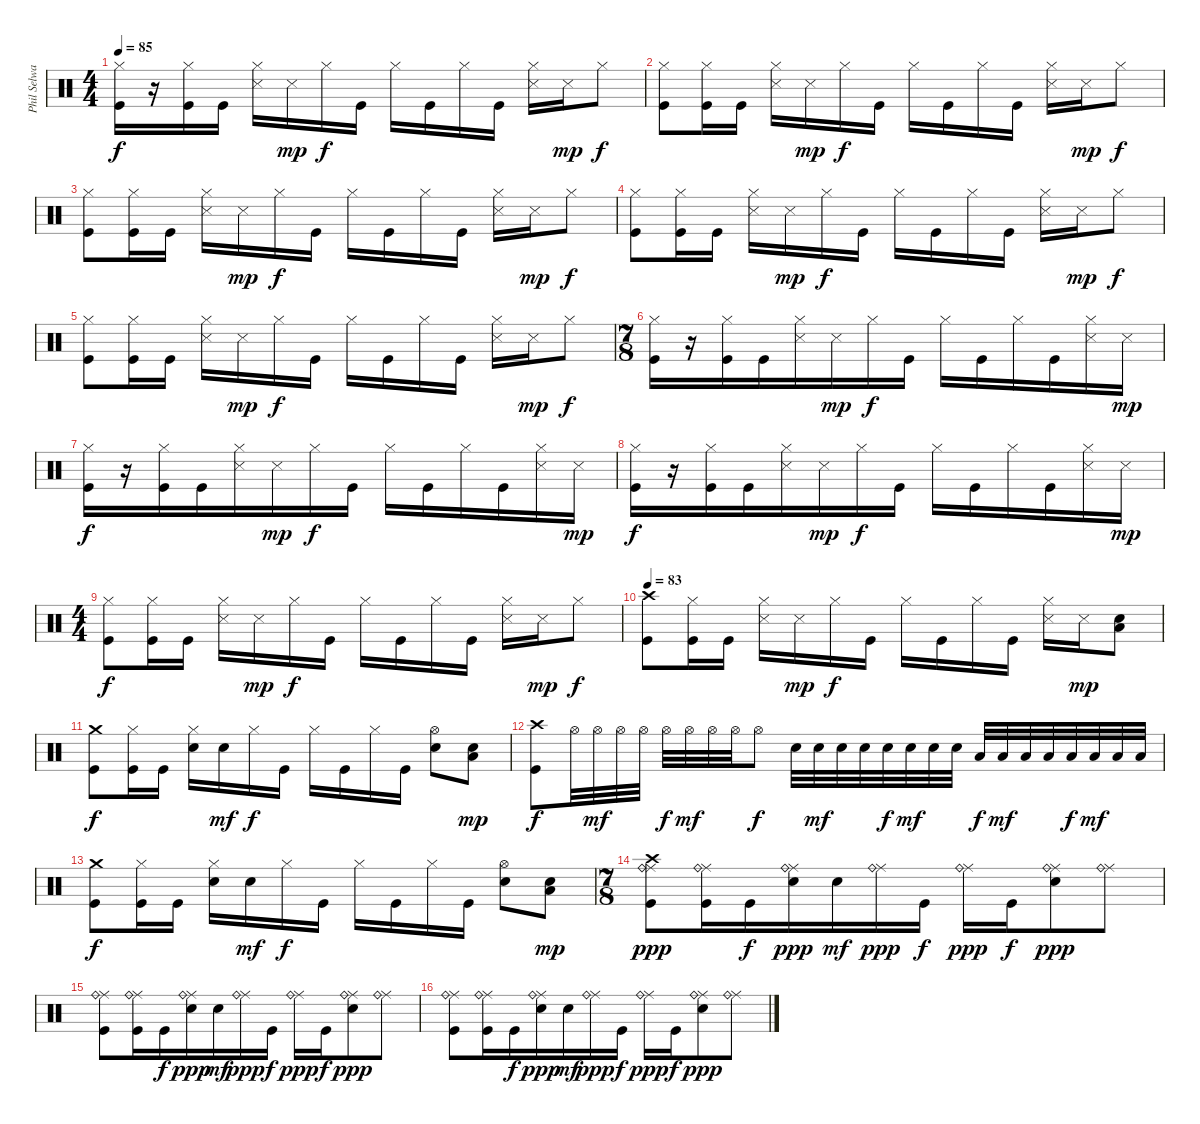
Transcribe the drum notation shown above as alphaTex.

\track ("Phil Selway" "Phil Selwa") {instrument percussion}
\staff {score}
\articulation defaults
\ts (4 4)
\tempo 85
\clef neutral
\ks c
("Hi-Hat (closed)" "Kick (hit)").16{dy f} r.16 ("Hi-Hat (closed)" "Kick (hit)").16 "Kick (hit)".16 ("Hi-Hat (closed)" "Snare (side stick) 3").16 "Snare (side stick) 3".16{dy mp} "Hi-Hat (closed)".16{dy f} "Kick (hit)".16 "Hi-Hat (closed)".16 "Kick (hit)".16 "Hi-Hat (closed)".16 "Kick (hit)".16 ("Hi-Hat (closed)" "Snare (side stick) 3").16 "Snare (side stick) 3".16{dy mp} "Hi-Hat (closed)".8{dy f} |
("Hi-Hat (closed)" "Kick (hit)").8 ("Hi-Hat (closed)" "Kick (hit)").16 "Kick (hit)".16 ("Hi-Hat (closed)" "Snare (side stick) 3").16 "Snare (side stick) 3".16{dy mp} "Hi-Hat (closed)".16{dy f} "Kick (hit)".16 "Hi-Hat (closed)".16 "Kick (hit)".16 "Hi-Hat (closed)".16 "Kick (hit)".16 ("Hi-Hat (closed)" "Snare (side stick) 3").16 "Snare (side stick) 3".16{dy mp} "Hi-Hat (closed)".8{dy f} |
("Hi-Hat (closed)" "Kick (hit)").8 ("Hi-Hat (closed)" "Kick (hit)").16 "Kick (hit)".16 ("Hi-Hat (closed)" "Snare (side stick) 3").16 "Snare (side stick) 3".16{dy mp} "Hi-Hat (closed)".16{dy f} "Kick (hit)".16 "Hi-Hat (closed)".16 "Kick (hit)".16 "Hi-Hat (closed)".16 "Kick (hit)".16 ("Hi-Hat (closed)" "Snare (side stick) 3").16 "Snare (side stick) 3".16{dy mp} "Hi-Hat (closed)".8{dy f} |
("Hi-Hat (closed)" "Kick (hit)").8 ("Hi-Hat (closed)" "Kick (hit)").16 "Kick (hit)".16 ("Hi-Hat (closed)" "Snare (side stick) 3").16 "Snare (side stick) 3".16{dy mp} "Hi-Hat (closed)".16{dy f} "Kick (hit)".16 "Hi-Hat (closed)".16 "Kick (hit)".16 "Hi-Hat (closed)".16 "Kick (hit)".16 ("Hi-Hat (closed)" "Snare (side stick) 3").16 "Snare (side stick) 3".16{dy mp} "Hi-Hat (closed)".8{dy f} |
("Hi-Hat (closed)" "Kick (hit)").8 ("Hi-Hat (closed)" "Kick (hit)").16 "Kick (hit)".16 ("Hi-Hat (closed)" "Snare (side stick) 3").16 "Snare (side stick) 3".16{dy mp} "Hi-Hat (closed)".16{dy f} "Kick (hit)".16 "Hi-Hat (closed)".16 "Kick (hit)".16 "Hi-Hat (closed)".16 "Kick (hit)".16 ("Hi-Hat (closed)" "Snare (side stick) 3").16 "Snare (side stick) 3".16{dy mp} "Hi-Hat (closed)".8{dy f} |
\ts (7 8)
("Hi-Hat (closed)" "Kick (hit)").16 r.16 ("Hi-Hat (closed)" "Kick (hit)").16 "Kick (hit)".16 ("Hi-Hat (closed)" "Snare (side stick) 3").16 "Snare (side stick) 3".16{dy mp} "Hi-Hat (closed)".16{dy f} "Kick (hit)".16 "Hi-Hat (closed)".16 "Kick (hit)".16 "Hi-Hat (closed)".16 "Kick (hit)".16 ("Hi-Hat (closed)" "Snare (side stick) 3").16 "Snare (side stick) 3".16{dy mp} |
("Hi-Hat (closed)" "Kick (hit)").16{dy f} r.16 ("Hi-Hat (closed)" "Kick (hit)").16 "Kick (hit)".16 ("Hi-Hat (closed)" "Snare (side stick) 3").16 "Snare (side stick) 3".16{dy mp} "Hi-Hat (closed)".16{dy f} "Kick (hit)".16 "Hi-Hat (closed)".16 "Kick (hit)".16 "Hi-Hat (closed)".16 "Kick (hit)".16 ("Hi-Hat (closed)" "Snare (side stick) 3").16 "Snare (side stick) 3".16{dy mp} |
("Hi-Hat (closed)" "Kick (hit)").16{dy f} r.16 ("Hi-Hat (closed)" "Kick (hit)").16 "Kick (hit)".16 ("Hi-Hat (closed)" "Snare (side stick) 3").16 "Snare (side stick) 3".16{dy mp} "Hi-Hat (closed)".16{dy f} "Kick (hit)".16 "Hi-Hat (closed)".16 "Kick (hit)".16 "Hi-Hat (closed)".16 "Kick (hit)".16 ("Hi-Hat (closed)" "Snare (side stick) 3").16 "Snare (side stick) 3".16{dy mp} |
\ts (4 4)
("Hi-Hat (closed)" "Kick (hit)").8{dy f} ("Hi-Hat (closed)" "Kick (hit)").16 "Kick (hit)".16 ("Hi-Hat (closed)" "Snare (side stick) 3").16 "Snare (side stick) 3".16{dy mp} "Hi-Hat (closed)".16{dy f} "Kick (hit)".16 "Hi-Hat (closed)".16 "Kick (hit)".16 "Hi-Hat (closed)".16 "Kick (hit)".16 ("Hi-Hat (closed)" "Snare (side stick) 3").16 "Snare (side stick) 3".16{dy mp} "Hi-Hat (closed)".8{dy f} |
\tempo 83
("Crash high (hit)" "Kick (hit)").8 ("Hi-Hat (closed)" "Kick (hit)").16 "Kick (hit)".16 ("Hi-Hat (closed)" "Snare (side stick) 3").16 "Snare (side stick) 3".16{dy mp} "Hi-Hat (closed)".16{dy f} "Kick (hit)".16 "Hi-Hat (closed)".16 "Kick (hit)".16 "Hi-Hat (closed)".16 "Kick (hit)".16 ("Hi-Hat (closed)" "Snare (side stick) 3").16 "Snare (side stick) 3".16{dy mp} ("Snare (hit) 2" "Low Floor Tom (hit)").8{volume 16} |
("Crash medium (hit)" "Kick (hit)").8{dy f} ("Hi-Hat (closed)" "Kick (hit)").16 "Kick (hit)".16 ("Hi-Hat (closed)" "Snare (hit) 2").16 "Snare (hit) 2".16{dy mf} "Hi-Hat (closed)".16{dy f} "Kick (hit)".16 "Hi-Hat (closed)".16 "Kick (hit)".16 "Hi-Hat (closed)".16 "Kick (hit)".16 ("Hi-Hat (open)" "Snare (hit) 2").8 ("Snare (hit) 2" "Low Floor Tom (hit)").8{dy mp} |
("Crash high (hit)" "Kick (hit)").8{dy f} "Hi-Hat (open)".32 "Hi-Hat (open)".32{dy mf} "Hi-Hat (open)".32 "Hi-Hat (open)".32 "Hi-Hat (open)".32{dy f} "Hi-Hat (open)".32{dy mf} "Hi-Hat (open)".32 "Hi-Hat (open)".32 "Hi-Hat (open)".8{dy f} "Snare (hit) 2".32 "Snare (hit) 2".32{dy mf} "Snare (hit) 2".32 "Snare (hit) 2".32 "Snare (hit) 2".32{dy f} "Snare (hit) 2".32{dy mf} "Snare (hit) 2".32 "Snare (hit) 2".32 "Low Tom (hit)".32{dy f} "Low Tom (hit)".32{dy mf} "Low Tom (hit)".32 "Low Tom (hit)".32 "Low Tom (hit)".32{dy f} "Low Tom (hit)".32{dy mf} "Low Tom (hit)".32 "Low Tom (hit)".32 |
("Crash medium (hit)" "Kick (hit)").8{dy f} ("Hi-Hat (closed)" "Kick (hit)").16 "Kick (hit)".16 ("Hi-Hat (closed)" "Snare (hit) 2").16 "Snare (hit) 2".16{dy mf} "Hi-Hat (closed)".16{dy f} "Kick (hit)".16 "Hi-Hat (closed)".16 "Kick (hit)".16 "Hi-Hat (closed)".16 "Kick (hit)".16 ("Hi-Hat (open)" "Snare (hit) 2").8 ("Snare (hit) 2" "Low Floor Tom (hit)").8{dy mp} |
\ts (7 8)
("Ride (middle)" "Ride (bell)" "Crash high (hit)" "Kick (hit)").8{dy ppp} ("Ride (middle)" "Ride (bell)" "Kick (hit)").16 "Kick (hit)".16{dy f} ("Ride (middle)" "Ride (bell)" "Snare (hit) 2").16{dy ppp} "Snare (hit) 2".16{dy mf} ("Ride (middle)" "Ride (bell)").16{dy ppp} "Kick (hit)".16{dy f} ("Ride (middle)" "Ride (bell)").16{dy ppp} "Kick (hit)".16{dy f} ("Ride (middle)" "Ride (bell)" "Snare (hit) 2").8{dy ppp} ("Ride (middle)" "Ride (bell)").8 |
("Ride (middle)" "Ride (bell)" "Kick (hit)").8 ("Ride (middle)" "Ride (bell)" "Kick (hit)").16 "Kick (hit)".16{dy f} ("Ride (middle)" "Ride (bell)" "Snare (hit) 2").16{dy ppp} "Snare (hit) 2".16{dy mf} ("Ride (middle)" "Ride (bell)").16{dy ppp} "Kick (hit)".16{dy f} ("Ride (middle)" "Ride (bell)").16{dy ppp} "Kick (hit)".16{dy f} ("Ride (middle)" "Ride (bell)" "Snare (hit) 2").8{dy ppp} ("Ride (middle)" "Ride (bell)").8 |
("Ride (middle)" "Ride (bell)" "Kick (hit)").8 ("Ride (middle)" "Ride (bell)" "Kick (hit)").16 "Kick (hit)".16{dy f} ("Ride (middle)" "Ride (bell)" "Snare (hit) 2").16{dy ppp} "Snare (hit) 2".16{dy mf} ("Ride (middle)" "Ride (bell)").16{dy ppp} "Kick (hit)".16{dy f} ("Ride (middle)" "Ride (bell)").16{dy ppp} "Kick (hit)".16{dy f} ("Ride (middle)" "Ride (bell)" "Snare (hit) 2").8{dy ppp} ("Ride (middle)" "Ride (bell)").8
